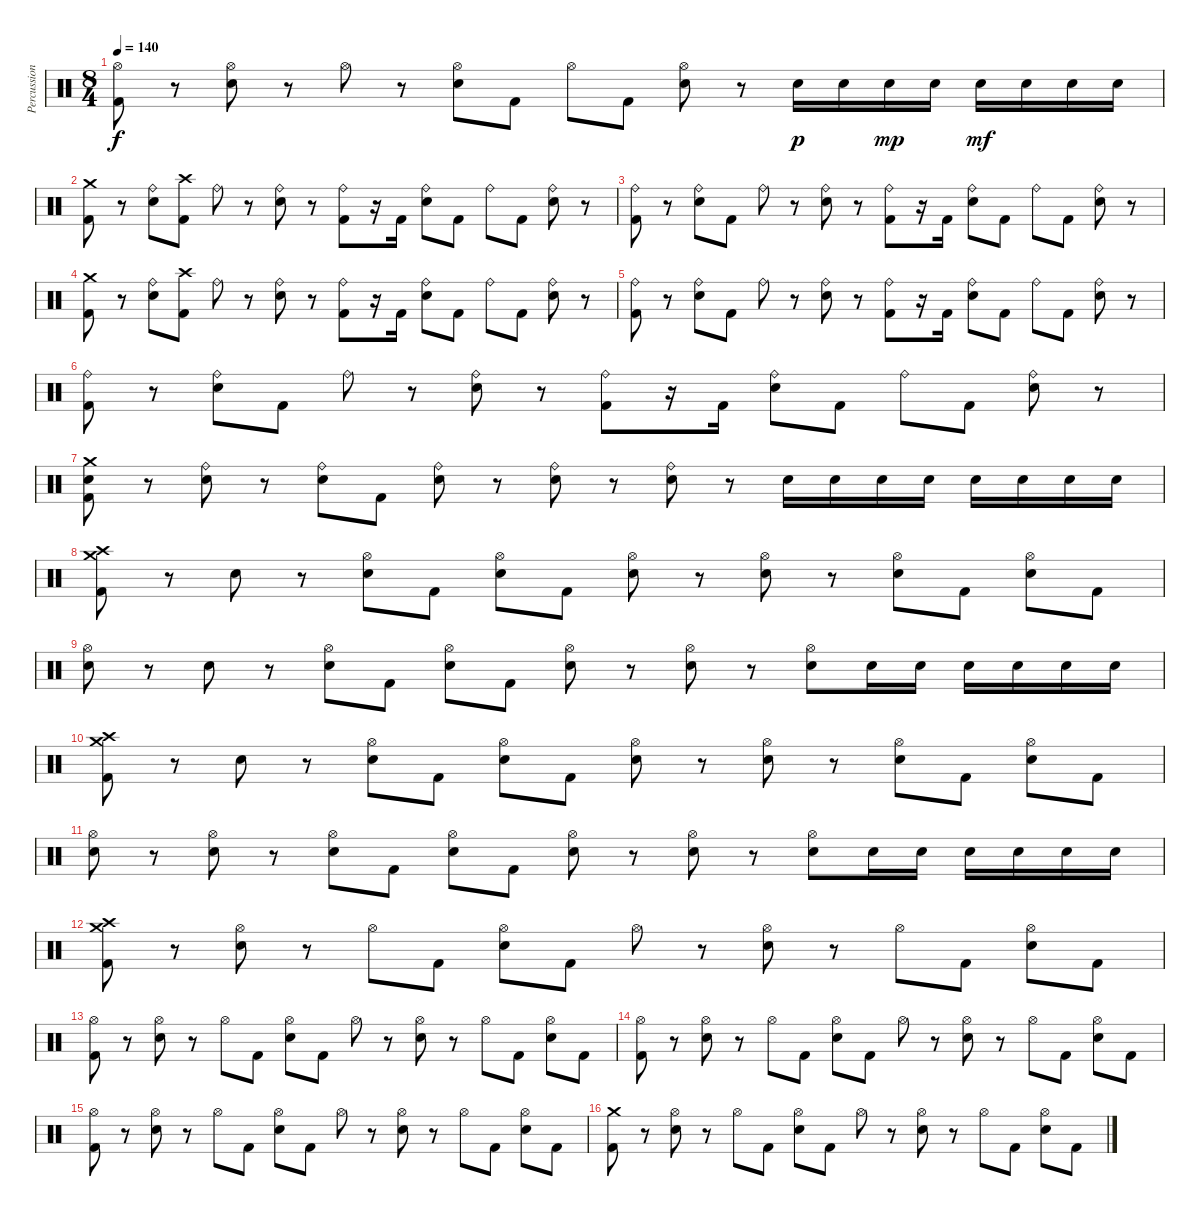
\track ("Percussion" "Percussion") {instrument percussion}
\staff {score}
\articulation defaults
\ts (8 4)
\tempo 140
\clef neutral
\ks c
("Hi-Hat (open)" "Kick (hit) 2").8{dy f} r.8 ("Hi-Hat (open)" "Electric Snare (hit)").8 r.8 "Hi-Hat (open)".8 r.8 ("Hi-Hat (open)" "Electric Snare (hit)").8 "Kick (hit) 2".8 "Hi-Hat (open)".8 "Kick (hit) 2".8 ("Hi-Hat (open)" "Electric Snare (hit)").8 r.8 "Electric Snare (hit)".16{dy p} "Electric Snare (hit)".16 "Electric Snare (hit)".16{dy mp} "Electric Snare (hit)".16 "Electric Snare (hit)".16{dy mf} "Electric Snare (hit)".16 "Electric Snare (hit)".16 "Electric Snare (hit)".16 |
("Crash medium (hit)" "Kick (hit) 2").8 r.8 ("Ride (bell)" "Electric Snare (hit)").8 ("Crash high (hit)" "Kick (hit) 2").8 "Ride (bell)".8 r.8 ("Ride (bell)" "Electric Snare (hit)").8 r.8 ("Ride (bell)" "Kick (hit) 2").8 r.16 "Kick (hit) 2".16 ("Ride (bell)" "Electric Snare (hit)").8 "Kick (hit) 2".8 "Ride (bell)".8 "Kick (hit) 2".8 ("Ride (bell)" "Electric Snare (hit)").8 r.8 |
("Ride (bell)" "Kick (hit) 2").8 r.8 ("Ride (bell)" "Electric Snare (hit)").8 "Kick (hit) 2".8 "Ride (bell)".8 r.8 ("Ride (bell)" "Electric Snare (hit)").8 r.8 ("Ride (bell)" "Kick (hit) 2").8 r.16 "Kick (hit) 2".16 ("Ride (bell)" "Electric Snare (hit)").8 "Kick (hit) 2".8 "Ride (bell)".8 "Kick (hit) 2".8 ("Ride (bell)" "Electric Snare (hit)").8 r.8 |
("Crash medium (hit)" "Kick (hit) 2").8 r.8 ("Ride (bell)" "Electric Snare (hit)").8 ("Crash high (hit)" "Kick (hit) 2").8 "Ride (bell)".8 r.8 ("Ride (bell)" "Electric Snare (hit)").8 r.8 ("Ride (bell)" "Kick (hit) 2").8 r.16 "Kick (hit) 2".16 ("Ride (bell)" "Electric Snare (hit)").8 "Kick (hit) 2".8 "Ride (bell)".8 "Kick (hit) 2".8 ("Ride (bell)" "Electric Snare (hit)").8 r.8 |
("Ride (bell)" "Kick (hit) 2").8 r.8 ("Ride (bell)" "Electric Snare (hit)").8 "Kick (hit) 2".8 "Ride (bell)".8 r.8 ("Ride (bell)" "Electric Snare (hit)").8 r.8 ("Ride (bell)" "Kick (hit) 2").8 r.16 "Kick (hit) 2".16 ("Ride (bell)" "Electric Snare (hit)").8 "Kick (hit) 2".8 "Ride (bell)".8 "Kick (hit) 2".8 ("Ride (bell)" "Electric Snare (hit)").8 r.8 |
("Ride (bell)" "Kick (hit) 2").8 r.8 ("Ride (bell)" "Electric Snare (hit)").8 "Kick (hit) 2".8 "Ride (bell)".8 r.8 ("Ride (bell)" "Electric Snare (hit)").8 r.8 ("Ride (bell)" "Kick (hit) 2").8 r.16 "Kick (hit) 2".16 ("Ride (bell)" "Electric Snare (hit)").8 "Kick (hit) 2".8 "Ride (bell)".8 "Kick (hit) 2".8 ("Ride (bell)" "Electric Snare (hit)").8 r.8 |
("Crash medium (hit)" "Electric Snare (hit)" "Kick (hit) 2").8 r.8 ("Ride (bell)" "Electric Snare (hit)").8 r.8 ("Ride (bell)" "Electric Snare (hit)").8 "Kick (hit) 2".8 ("Ride (bell)" "Electric Snare (hit)").8 r.8 ("Ride (bell)" "Electric Snare (hit)").8 r.8 ("Ride (bell)" "Electric Snare (hit)").8 r.8 "Electric Snare (hit)".16 "Electric Snare (hit)".16 "Electric Snare (hit)".16 "Electric Snare (hit)".16 "Electric Snare (hit)".16 "Electric Snare (hit)".16 "Electric Snare (hit)".16 "Electric Snare (hit)".16 |
("Crash medium (hit)" "Crash high (hit)" "Kick (hit) 2").8 r.8 "Electric Snare (hit)".8 r.8 ("Hi-Hat (open)" "Electric Snare (hit)").8 "Kick (hit) 2".8 ("Hi-Hat (open)" "Electric Snare (hit)").8 "Kick (hit) 2".8 ("Hi-Hat (open)" "Electric Snare (hit)").8 r.8 ("Hi-Hat (open)" "Electric Snare (hit)").8 r.8 ("Hi-Hat (open)" "Electric Snare (hit)").8 "Kick (hit) 2".8 ("Hi-Hat (open)" "Electric Snare (hit)").8 "Kick (hit) 2".8 |
("Hi-Hat (open)" "Electric Snare (hit)").8 r.8 "Electric Snare (hit)".8 r.8 ("Hi-Hat (open)" "Electric Snare (hit)").8 "Kick (hit) 2".8 ("Hi-Hat (open)" "Electric Snare (hit)").8 "Kick (hit) 2".8 ("Hi-Hat (open)" "Electric Snare (hit)").8 r.8 ("Hi-Hat (open)" "Electric Snare (hit)").8 r.8 ("Hi-Hat (open)" "Electric Snare (hit)").8 "Electric Snare (hit)".16 "Electric Snare (hit)".16 "Electric Snare (hit)".16 "Electric Snare (hit)".16 "Electric Snare (hit)".16 "Electric Snare (hit)".16 |
("Crash medium (hit)" "Crash high (hit)" "Kick (hit) 2").8 r.8 "Electric Snare (hit)".8 r.8 ("Hi-Hat (open)" "Electric Snare (hit)").8 "Kick (hit) 2".8 ("Hi-Hat (open)" "Electric Snare (hit)").8 "Kick (hit) 2".8 ("Hi-Hat (open)" "Electric Snare (hit)").8 r.8 ("Hi-Hat (open)" "Electric Snare (hit)").8 r.8 ("Hi-Hat (open)" "Electric Snare (hit)").8 "Kick (hit) 2".8 ("Hi-Hat (open)" "Electric Snare (hit)").8 "Kick (hit) 2".8 |
("Hi-Hat (open)" "Electric Snare (hit)").8 r.8 ("Hi-Hat (open)" "Electric Snare (hit)").8 r.8 ("Hi-Hat (open)" "Electric Snare (hit)").8 "Kick (hit) 2".8 ("Hi-Hat (open)" "Electric Snare (hit)").8 "Kick (hit) 2".8 ("Hi-Hat (open)" "Electric Snare (hit)").8 r.8 ("Hi-Hat (open)" "Electric Snare (hit)").8 r.8 ("Hi-Hat (open)" "Electric Snare (hit)").8 "Electric Snare (hit)".16 "Electric Snare (hit)".16 "Electric Snare (hit)".16 "Electric Snare (hit)".16 "Electric Snare (hit)".16 "Electric Snare (hit)".16 |
("Crash medium (hit)" "Crash high (hit)" "Kick (hit) 2").8 r.8 ("Hi-Hat (open)" "Electric Snare (hit)").8 r.8 "Hi-Hat (open)".8 "Kick (hit) 2".8 ("Hi-Hat (open)" "Electric Snare (hit)").8 "Kick (hit) 2".8 "Hi-Hat (open)".8 r.8 ("Hi-Hat (open)" "Electric Snare (hit)").8 r.8 "Hi-Hat (open)".8 "Kick (hit) 2".8 ("Hi-Hat (open)" "Electric Snare (hit)").8 "Kick (hit) 2".8 |
("Hi-Hat (open)" "Kick (hit) 2").8 r.8 ("Hi-Hat (open)" "Electric Snare (hit)").8 r.8 "Hi-Hat (open)".8 "Kick (hit) 2".8 ("Hi-Hat (open)" "Electric Snare (hit)").8 "Kick (hit) 2".8 "Hi-Hat (open)".8 r.8 ("Hi-Hat (open)" "Electric Snare (hit)").8 r.8 "Hi-Hat (open)".8 "Kick (hit) 2".8 ("Hi-Hat (open)" "Electric Snare (hit)").8 "Kick (hit) 2".8 |
("Hi-Hat (open)" "Kick (hit) 2").8 r.8 ("Hi-Hat (open)" "Electric Snare (hit)").8 r.8 "Hi-Hat (open)".8 "Kick (hit) 2".8 ("Hi-Hat (open)" "Electric Snare (hit)").8 "Kick (hit) 2".8 "Hi-Hat (open)".8 r.8 ("Hi-Hat (open)" "Electric Snare (hit)").8 r.8 "Hi-Hat (open)".8 "Kick (hit) 2".8 ("Hi-Hat (open)" "Electric Snare (hit)").8 "Kick (hit) 2".8 |
("Hi-Hat (open)" "Kick (hit) 2").8 r.8 ("Hi-Hat (open)" "Electric Snare (hit)").8 r.8 "Hi-Hat (open)".8 "Kick (hit) 2".8 ("Hi-Hat (open)" "Electric Snare (hit)").8 "Kick (hit) 2".8 "Hi-Hat (open)".8 r.8 ("Hi-Hat (open)" "Electric Snare (hit)").8 r.8 "Hi-Hat (open)".8 "Kick (hit) 2".8 ("Hi-Hat (open)" "Electric Snare (hit)").8 "Kick (hit) 2".8 |
("Crash medium (hit)" "Kick (hit) 2").8 r.8 ("Hi-Hat (open)" "Electric Snare (hit)").8 r.8 "Hi-Hat (open)".8 "Kick (hit) 2".8 ("Hi-Hat (open)" "Electric Snare (hit)").8 "Kick (hit) 2".8 "Hi-Hat (open)".8 r.8 ("Hi-Hat (open)" "Electric Snare (hit)").8 r.8 "Hi-Hat (open)".8 "Kick (hit) 2".8 ("Hi-Hat (open)" "Electric Snare (hit)").8 "Kick (hit) 2".8
